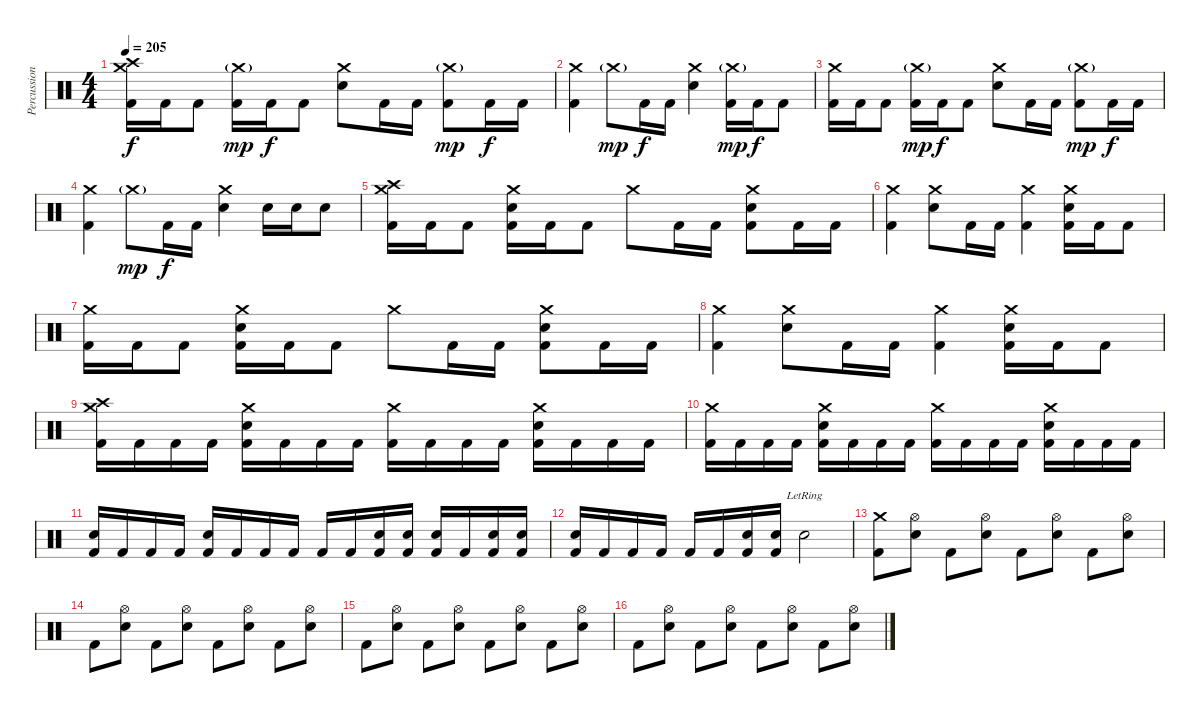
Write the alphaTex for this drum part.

\track ("Percussions" "Percussion") {instrument percussion}
\staff {score}
\articulation defaults
\ts (4 4)
\tempo 205
\clef neutral
\ks c
("Crash medium (hit)" "Crash high (hit)" "Kick (hit) 2").16{dy f} "Kick (hit) 2".16 "Kick (hit) 2".8 ("Crash medium (hit)"{g} "Kick (hit) 2").16{dy mp} "Kick (hit) 2".16{dy f} "Kick (hit) 2".8 ("Crash medium (hit)" "Electric Snare (hit)").8 "Kick (hit) 2".16 "Kick (hit) 2".16 ("Crash medium (hit)"{g} "Kick (hit) 2").8{dy mp} "Kick (hit) 2".16{dy f} "Kick (hit) 2".16 |
("Crash medium (hit)" "Kick (hit) 2").4 "Crash medium (hit)"{g}.8{dy mp} "Kick (hit) 2".16{dy f} "Kick (hit) 2".16 ("Crash medium (hit)" "Electric Snare (hit)").4 ("Crash medium (hit)"{g} "Kick (hit) 2").16{dy mp} "Kick (hit) 2".16{dy f} "Kick (hit) 2".8 |
("Crash medium (hit)" "Kick (hit) 2").16 "Kick (hit) 2".16 "Kick (hit) 2".8 ("Crash medium (hit)"{g} "Kick (hit) 2").16{dy mp} "Kick (hit) 2".16{dy f} "Kick (hit) 2".8 ("Crash medium (hit)" "Electric Snare (hit)").8 "Kick (hit) 2".16 "Kick (hit) 2".16 ("Crash medium (hit)"{g} "Kick (hit) 2").8{dy mp} "Kick (hit) 2".16{dy f} "Kick (hit) 2".16 |
("Crash medium (hit)" "Kick (hit) 2").4 "Crash medium (hit)"{g}.8{dy mp} "Kick (hit) 2".16{dy f} "Kick (hit) 2".16 ("Crash medium (hit)" "Electric Snare (hit)").4 "Electric Snare (hit)".16 "Electric Snare (hit)".16 "Electric Snare (hit)".8 |
("Crash medium (hit)" "Crash high (hit)" "Kick (hit) 2").16 "Kick (hit) 2".16 "Kick (hit) 2".8 ("Crash medium (hit)" "Electric Snare (hit)" "Kick (hit) 2").16 "Kick (hit) 2".16 "Kick (hit) 2".8 "Crash medium (hit)".8 "Kick (hit) 2".16 "Kick (hit) 2".16 ("Crash medium (hit)" "Electric Snare (hit)" "Kick (hit) 2").8 "Kick (hit) 2".16 "Kick (hit) 2".16 |
("Crash medium (hit)" "Kick (hit) 2").4 ("Crash medium (hit)" "Electric Snare (hit)").8 "Kick (hit) 2".16 "Kick (hit) 2".16 ("Crash medium (hit)" "Kick (hit) 2").4 ("Crash medium (hit)" "Electric Snare (hit)" "Kick (hit) 2").16 "Kick (hit) 2".16 "Kick (hit) 2".8 |
("Crash medium (hit)" "Kick (hit) 2").16 "Kick (hit) 2".16 "Kick (hit) 2".8 ("Crash medium (hit)" "Electric Snare (hit)" "Kick (hit) 2").16 "Kick (hit) 2".16 "Kick (hit) 2".8 "Crash medium (hit)".8 "Kick (hit) 2".16 "Kick (hit) 2".16 ("Crash medium (hit)" "Electric Snare (hit)" "Kick (hit) 2").8 "Kick (hit) 2".16 "Kick (hit) 2".16 |
("Crash medium (hit)" "Kick (hit) 2").4 ("Crash medium (hit)" "Electric Snare (hit)").8 "Kick (hit) 2".16 "Kick (hit) 2".16 ("Crash medium (hit)" "Kick (hit) 2").4 ("Crash medium (hit)" "Electric Snare (hit)" "Kick (hit) 2").16 "Kick (hit) 2".16 "Kick (hit) 2".8 |
("Crash medium (hit)" "Crash high (hit)" "Kick (hit) 2").16 "Kick (hit) 2".16 "Kick (hit) 2".16 "Kick (hit) 2".16 ("Crash medium (hit)" "Electric Snare (hit)" "Kick (hit) 2").16 "Kick (hit) 2".16 "Kick (hit) 2".16 "Kick (hit) 2".16 ("Crash medium (hit)" "Kick (hit) 2").16 "Kick (hit) 2".16 "Kick (hit) 2".16 "Kick (hit) 2".16 ("Crash medium (hit)" "Electric Snare (hit)" "Kick (hit) 2").16 "Kick (hit) 2".16 "Kick (hit) 2".16 "Kick (hit) 2".16 |
("Crash medium (hit)" "Kick (hit) 2").16 "Kick (hit) 2".16 "Kick (hit) 2".16 "Kick (hit) 2".16 ("Crash medium (hit)" "Electric Snare (hit)" "Kick (hit) 2").16 "Kick (hit) 2".16 "Kick (hit) 2".16 "Kick (hit) 2".16 ("Crash medium (hit)" "Kick (hit) 2").16 "Kick (hit) 2".16 "Kick (hit) 2".16 "Kick (hit) 2".16 ("Crash medium (hit)" "Electric Snare (hit)" "Kick (hit) 2").16 "Kick (hit) 2".16 "Kick (hit) 2".16 "Kick (hit) 2".16 |
("Electric Snare (hit)" "Kick (hit) 2").16 "Kick (hit) 2".16 "Kick (hit) 2".16 "Kick (hit) 2".16 ("Electric Snare (hit)" "Kick (hit) 2").16 "Kick (hit) 2".16 "Kick (hit) 2".16 "Kick (hit) 2".16 "Kick (hit) 2".16 "Kick (hit) 2".16 ("Electric Snare (hit)" "Kick (hit) 2").16 ("Electric Snare (hit)" "Kick (hit) 2").16 ("Electric Snare (hit)" "Kick (hit) 2").16 "Kick (hit) 2".16 ("Electric Snare (hit)" "Kick (hit) 2").16 ("Electric Snare (hit)" "Kick (hit) 2").16 |
("Electric Snare (hit)" "Kick (hit) 2").16 "Kick (hit) 2".16 "Kick (hit) 2".16 "Kick (hit) 2".16 "Kick (hit) 2".16 "Kick (hit) 2".16 ("Electric Snare (hit)" "Kick (hit) 2").16 ("Electric Snare (hit)" "Kick (hit) 2").16 "Electric Snare (hit)"{lr}.2 |
("Crash medium (hit)" "Kick (hit) 2").8 ("Hi-Hat (open)" "Electric Snare (hit)").8 "Kick (hit) 2".8 ("Hi-Hat (open)" "Electric Snare (hit)").8 "Kick (hit) 2".8 ("Hi-Hat (open)" "Electric Snare (hit)").8 "Kick (hit) 2".8 ("Hi-Hat (open)" "Electric Snare (hit)").8 |
"Kick (hit) 2".8 ("Hi-Hat (open)" "Electric Snare (hit)").8 "Kick (hit) 2".8 ("Hi-Hat (open)" "Electric Snare (hit)").8 "Kick (hit) 2".8 ("Hi-Hat (open)" "Electric Snare (hit)").8 "Kick (hit) 2".8 ("Hi-Hat (open)" "Electric Snare (hit)").8 |
"Kick (hit) 2".8 ("Hi-Hat (open)" "Electric Snare (hit)").8 "Kick (hit) 2".8 ("Hi-Hat (open)" "Electric Snare (hit)").8 "Kick (hit) 2".8 ("Hi-Hat (open)" "Electric Snare (hit)").8 "Kick (hit) 2".8 ("Hi-Hat (open)" "Electric Snare (hit)").8 |
"Kick (hit) 2".8 ("Hi-Hat (open)" "Electric Snare (hit)").8 "Kick (hit) 2".8 ("Hi-Hat (open)" "Electric Snare (hit)").8 "Kick (hit) 2".8 ("Hi-Hat (open)" "Electric Snare (hit)").8 "Kick (hit) 2".8 ("Hi-Hat (open)" "Electric Snare (hit)").8
